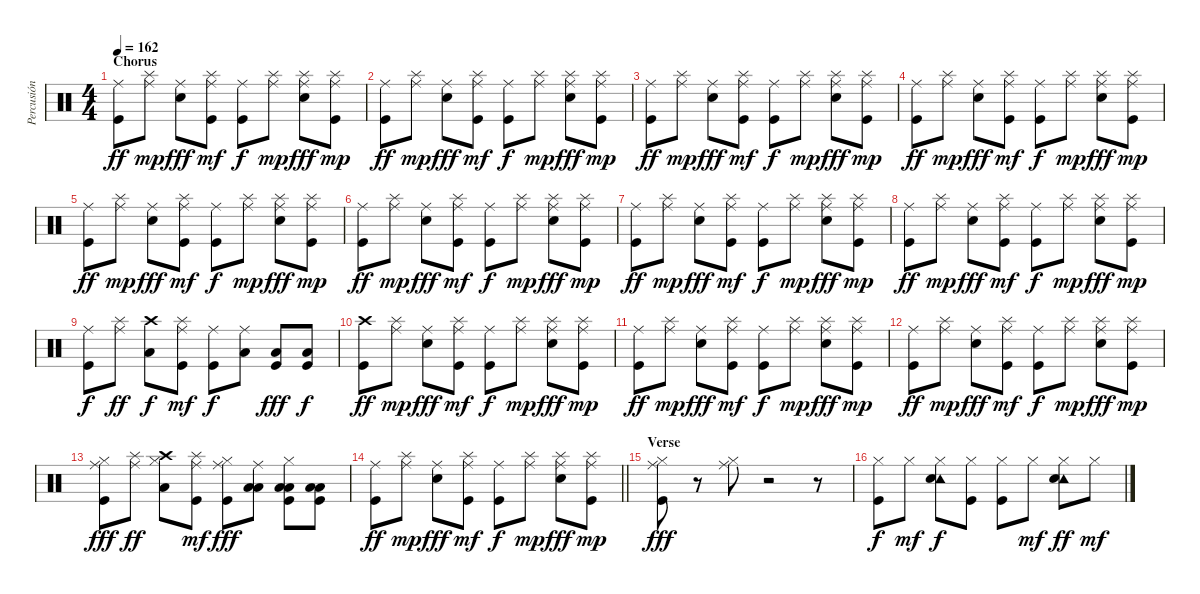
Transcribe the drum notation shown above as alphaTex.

\track ("Percusión" "Percusión") {instrument percussion}
\staff {score}
\articulation defaults
\ts (4 4)
\section ("" "Chorus")
\tempo 162
\clef neutral
\ks c
("Ride (middle)" "Kick (hit)").8{dy ff} ("Ride (middle)" "Splash (hit)").8{dy mp} ("Ride (middle)" "Snare (hit) 2").8{dy fff} ("Ride (middle)" "Splash (hit)" "Kick (hit)").8{dy mf} ("Ride (middle)" "Kick (hit)").8{dy f} ("Ride (middle)" "Splash (hit)").8{dy mp} ("Ride (middle)" "Splash (hit)" "Snare (hit) 2").8{dy fff} ("Ride (middle)" "Splash (hit)" "Kick (hit)").8{dy mp} |
("Ride (middle)" "Kick (hit)").8{dy ff} ("Ride (middle)" "Splash (hit)").8{dy mp} ("Ride (middle)" "Snare (hit) 2").8{dy fff} ("Ride (middle)" "Splash (hit)" "Kick (hit)").8{dy mf} ("Ride (middle)" "Kick (hit)").8{dy f} ("Ride (middle)" "Splash (hit)").8{dy mp} ("Ride (middle)" "Splash (hit)" "Snare (hit) 2").8{dy fff} ("Ride (middle)" "Splash (hit)" "Kick (hit)").8{dy mp} |
("Ride (middle)" "Kick (hit)").8{dy ff} ("Ride (middle)" "Splash (hit)").8{dy mp} ("Ride (middle)" "Snare (hit) 2").8{dy fff} ("Ride (middle)" "Splash (hit)" "Kick (hit)").8{dy mf} ("Ride (middle)" "Kick (hit)").8{dy f} ("Ride (middle)" "Splash (hit)").8{dy mp} ("Ride (middle)" "Splash (hit)" "Snare (hit) 2").8{dy fff} ("Ride (middle)" "Splash (hit)" "Kick (hit)").8{dy mp} |
("Ride (middle)" "Kick (hit)").8{dy ff} ("Ride (middle)" "Splash (hit)").8{dy mp} ("Ride (middle)" "Snare (hit) 2").8{dy fff} ("Ride (middle)" "Splash (hit)" "Kick (hit)").8{dy mf} ("Ride (middle)" "Kick (hit)").8{dy f} ("Ride (middle)" "Splash (hit)").8{dy mp} ("Ride (middle)" "Splash (hit)" "Snare (hit) 2").8{dy fff} ("Ride (middle)" "Splash (hit)" "Kick (hit)").8{dy mp} |
("Ride (middle)" "Kick (hit)").8{dy ff} ("Ride (middle)" "Splash (hit)").8{dy mp} ("Ride (middle)" "Snare (hit) 2").8{dy fff} ("Ride (middle)" "Splash (hit)" "Kick (hit)").8{dy mf} ("Ride (middle)" "Kick (hit)").8{dy f} ("Ride (middle)" "Splash (hit)").8{dy mp} ("Ride (middle)" "Splash (hit)" "Snare (hit) 2").8{dy fff} ("Ride (middle)" "Splash (hit)" "Kick (hit)").8{dy mp} |
("Ride (middle)" "Kick (hit)").8{dy ff} ("Ride (middle)" "Splash (hit)").8{dy mp} ("Ride (middle)" "Snare (hit) 2").8{dy fff} ("Ride (middle)" "Splash (hit)" "Kick (hit)").8{dy mf} ("Ride (middle)" "Kick (hit)").8{dy f} ("Ride (middle)" "Splash (hit)").8{dy mp} ("Ride (middle)" "Splash (hit)" "Snare (hit) 2").8{dy fff} ("Ride (middle)" "Splash (hit)" "Kick (hit)").8{dy mp} |
("Ride (middle)" "Kick (hit)").8{dy ff} ("Ride (middle)" "Splash (hit)").8{dy mp} ("Ride (middle)" "Snare (hit) 2").8{dy fff} ("Ride (middle)" "Splash (hit)" "Kick (hit)").8{dy mf} ("Ride (middle)" "Kick (hit)").8{dy f} ("Ride (middle)" "Splash (hit)").8{dy mp} ("Ride (middle)" "Splash (hit)" "Snare (hit) 2").8{dy fff} ("Ride (middle)" "Splash (hit)" "Kick (hit)").8{dy mp} |
("Ride (middle)" "Kick (hit)").8{dy ff} ("Ride (middle)" "Splash (hit)").8{dy mp} ("Ride (middle)" "Snare (hit) 2").8{dy fff} ("Ride (middle)" "Splash (hit)" "Kick (hit)").8{dy mf} ("Ride (middle)" "Kick (hit)").8{dy f} ("Ride (middle)" "Splash (hit)").8{dy mp} ("Ride (middle)" "Splash (hit)" "Snare (hit) 2").8{dy fff} ("Ride (middle)" "Splash (hit)" "Kick (hit)").8{dy mp} |
("Ride (middle)" "Kick (hit)").8{dy f} ("Ride (middle)" "Splash (hit)").8{dy ff} ("Crash high (hit)" "Low Tom (hit)").8{dy f} ("Ride (middle)" "Splash (hit)" "Kick (hit)").8{dy mf} ("Ride (middle)" "Kick (hit)").8{dy f} ("Ride (middle)" "Low Tom (hit)").8 ("Low Tom (hit)" "Kick (hit)").8{dy fff} ("Low Tom (hit)" "Kick (hit)").8{dy f} |
("Crash high (hit)" "Kick (hit)").8{dy ff} ("Ride (middle)" "Splash (hit)").8{dy mp} ("Ride (middle)" "Snare (hit) 2").8{dy fff} ("Ride (middle)" "Splash (hit)" "Kick (hit)").8{dy mf} ("Ride (middle)" "Kick (hit)").8{dy f} ("Ride (middle)" "Splash (hit)").8{dy mp} ("Ride (middle)" "Splash (hit)" "Snare (hit) 2").8{dy fff} ("Ride (middle)" "Splash (hit)" "Kick (hit)").8{dy mp} |
("Ride (middle)" "Kick (hit)").8{dy ff} ("Ride (middle)" "Splash (hit)").8{dy mp} ("Ride (middle)" "Snare (hit) 2").8{dy fff} ("Ride (middle)" "Splash (hit)" "Kick (hit)").8{dy mf} ("Ride (middle)" "Kick (hit)").8{dy f} ("Ride (middle)" "Splash (hit)").8{dy mp} ("Ride (middle)" "Splash (hit)" "Snare (hit) 2").8{dy fff} ("Ride (middle)" "Splash (hit)" "Kick (hit)").8{dy mp} |
("Ride (middle)" "Kick (hit)").8{dy ff} ("Ride (middle)" "Splash (hit)").8{dy mp} ("Ride (middle)" "Snare (hit) 2").8{dy fff} ("Ride (middle)" "Splash (hit)" "Kick (hit)").8{dy mf} ("Ride (middle)" "Kick (hit)").8{dy f} ("Ride (middle)" "Splash (hit)").8{dy mp} ("Ride (middle)" "Splash (hit)" "Snare (hit) 2").8{dy fff} ("Ride (middle)" "Splash (hit)" "Kick (hit)").8{dy mp} |
("Kick (hit)" "Hi-Hat (closed)" "Ride (middle)").8{dy fff} ("Splash (hit)" "Ride (middle)").8{dy ff} ("Hi-Hat (closed)" "Crash high (hit)" "Low Tom (hit)").8 ("Kick (hit)" "Splash (hit)" "Ride (middle)").8{dy mf} ("Kick (hit)" "Hi-Hat (closed)" "Ride (middle)").8{dy fff} ("Low Tom (hit)" "Low Tom (hit)" "Ride (middle)").8 ("Low Tom (hit)" "Kick (hit)" "Hi-Hat (closed)" "Low Tom (hit)").8 ("Low Tom (hit)" "Kick (hit)" "Low Tom (hit)").8 |
\barLineRight lightlight
("Ride (middle)" "Kick (hit)").8{dy ff} ("Ride (middle)" "Splash (hit)").8{dy mp} ("Ride (middle)" "Snare (hit) 2").8{dy fff} ("Ride (middle)" "Splash (hit)" "Kick (hit)").8{dy mf} ("Ride (middle)" "Kick (hit)").8{dy f} ("Ride (middle)" "Splash (hit)").8{dy mp} ("Ride (middle)" "Splash (hit)" "Snare (hit) 2").8{dy fff} ("Ride (middle)" "Splash (hit)" "Kick (hit)").8{dy mp} |
\section ("" "Verse")
("Kick (hit)" "Hi-Hat (closed)" "Ride (middle)").8{dy fff} r.8 ("Hi-Hat (closed)" "Ride (middle)").8 r.2 r.8 |
("Hi-Hat (closed)" "Kick (hit)").8{dy f} "Hi-Hat (closed)".8{dy mf} ("Hi-Hat (closed)" "Tambourine (hit)" "Snare (hit) 2").8{dy f} ("Hi-Hat (closed)" "Kick (hit)").8 ("Hi-Hat (closed)" "Kick (hit)").8 "Hi-Hat (closed)".8{dy mf} ("Hi-Hat (closed)" "Tambourine (hit)" "Snare (hit) 2").8{dy ff} "Hi-Hat (closed)".8{dy mf}
